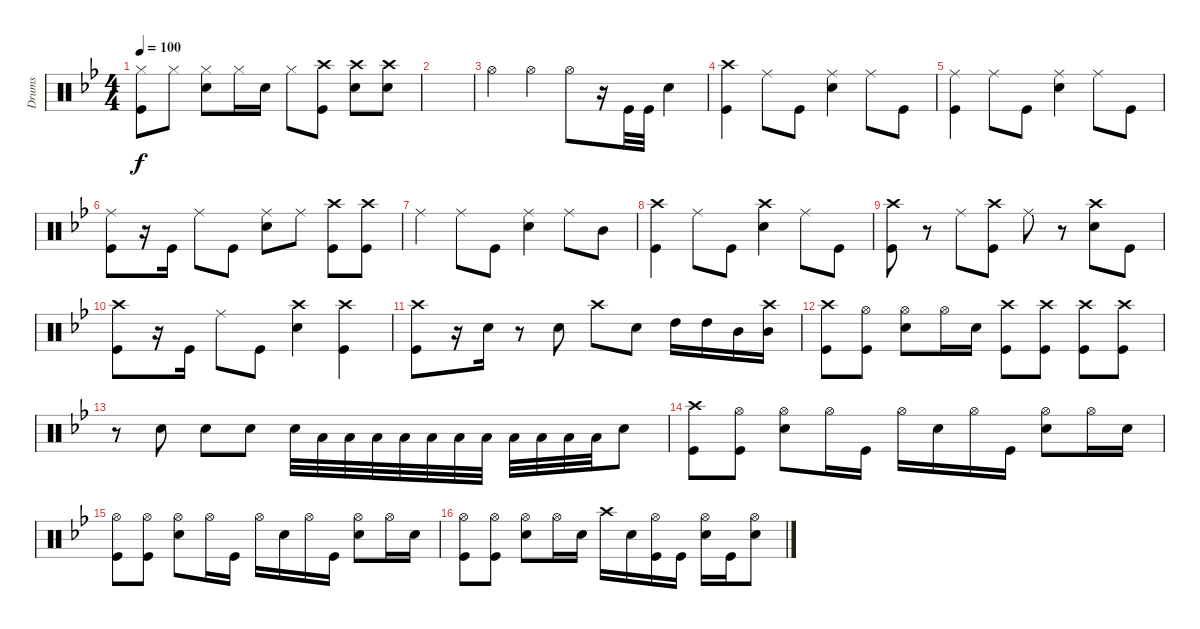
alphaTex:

\track ("Drums" "Drums") {instrument percussion}
\staff {score}
\articulation defaults
\ts (4 4)
\tempo 100
\clef neutral
\ks bb
("Hi-Hat (closed)" "Kick (hit)").8{dy f} "Hi-Hat (closed)".8 ("Hi-Hat (closed)" "Snare (hit) 2").8 "Hi-Hat (closed)".16 "Snare (hit) 2".16 "Hi-Hat (closed)".8 ("Crash high (hit)" "Kick (hit)").8 ("Crash high (hit)" "Snare (hit) 2").8 ("Crash high (hit)" "Snare (hit) 2").8 |
|
"Hi-Hat (open)".4 "Hi-Hat (open)".4 "Hi-Hat (open)".8 r.16 "Kick (hit)".32 "Kick (hit)".32 "Snare (hit) 2".4 |
("Crash high (hit)" "Kick (hit)").4 "Ride (middle)".8 "Kick (hit)".8 ("Ride (middle)" "Snare (hit) 2").4 "Ride (middle)".8 "Kick (hit)".8 |
("Ride (middle)" "Kick (hit)").4 "Ride (middle)".8 "Kick (hit)".8 ("Ride (middle)" "Snare (hit) 2").4 "Ride (middle)".8 "Kick (hit)".8 |
("Ride (middle)" "Kick (hit)").8 r.16 "Kick (hit)".16 "Ride (middle)".8 "Kick (hit)".8 ("Ride (middle)" "Snare (hit) 2").8 "Ride (middle)".8 ("Crash high (hit)" "Kick (hit)").8 ("Crash high (hit)" "Kick (hit)").8 |
"Ride (middle)".4 "Ride (middle)".8 "Kick (hit)".8 ("Ride (middle)" "Snare (hit) 2").4 "Ride (middle)".8 "Mid Tom (hit)".8 |
("Crash high (hit)" "Kick (hit)").4 "Ride (middle)".8 "Kick (hit)".8 ("Crash high (hit)" "Snare (hit) 2").4 "Ride (middle)".8 "Kick (hit)".8 |
("Crash high (hit)" "Kick (hit)").8 r.8 "Ride (middle)".8 ("Crash high (hit)" "Kick (hit)").8 "Ride (middle)".8 r.8 ("Crash high (hit)" "Snare (hit) 2").8 "Kick (hit)".8 |
("Crash high (hit)" "Kick (hit)").8 r.16 "Kick (hit)".16 "Ride (middle)".8 "Kick (hit)".8 ("Crash high (hit)" "Snare (hit) 2").4 ("Crash high (hit)" "Kick (hit)").4 |
("Crash high (hit)" "Kick (hit)").8 r.16 "Snare (hit) 2".16 r.8 "Snare (hit) 2".8 "Crash high (hit)".8 "Snare (hit) 2".8 "High Tom (hit)".16 "High Tom (hit)".16 "Mid Tom (hit)".16 ("Crash high (hit)" "Mid Tom (hit)").16 |
("Crash high (hit)" "Kick (hit)").8 ("Hi-Hat (open)" "Kick (hit)").8 ("Hi-Hat (open)" "Snare (hit) 2").8 "Hi-Hat (open)".16 "Snare (hit) 2".16 ("Crash high (hit)" "Kick (hit)").8 ("Crash high (hit)" "Kick (hit)").8 ("Crash high (hit)" "Kick (hit)").8 ("Crash high (hit)" "Kick (hit)").8 |
r.8 "Snare (hit) 2".8 "Snare (hit) 2".8 "Snare (hit) 2".8 "Snare (hit) 2".32 "Low Floor Tom (hit)".32 "Low Floor Tom (hit)".32 "Low Floor Tom (hit)".32 "Low Floor Tom (hit)".32 "Low Floor Tom (hit)".32 "Low Floor Tom (hit)".32 "Low Floor Tom (hit)".32 "Low Floor Tom (hit)".32 "Low Floor Tom (hit)".32 "Low Floor Tom (hit)".32 "Low Floor Tom (hit)".32 "Snare (hit) 2".8 |
\ks gminor
("Crash high (hit)" "Kick (hit)").8 ("Hi-Hat (open)" "Kick (hit)").8 ("Hi-Hat (open)" "Snare (hit) 2").8 "Hi-Hat (open)".16 "Kick (hit)".16 "Hi-Hat (open)".16 "Snare (hit) 2".16 "Hi-Hat (open)".16 "Kick (hit)".16 ("Hi-Hat (open)" "Snare (hit) 2").8 "Hi-Hat (open)".16 "Snare (hit) 2".16 |
("Hi-Hat (open)" "Kick (hit)").8 ("Hi-Hat (open)" "Kick (hit)").8 ("Hi-Hat (open)" "Snare (hit) 2").8 "Hi-Hat (open)".16 "Kick (hit)".16 "Hi-Hat (open)".16 "Snare (hit) 2".16 "Hi-Hat (open)".16 "Kick (hit)".16 ("Hi-Hat (open)" "Snare (hit) 2").8 "Hi-Hat (open)".16 "Snare (hit) 2".16 |
("Hi-Hat (open)" "Kick (hit)").8 ("Hi-Hat (open)" "Kick (hit)").8 ("Hi-Hat (open)" "Snare (hit) 2").8 "Hi-Hat (open)".16 "Snare (hit) 2".16 "Crash high (hit)".16 "Snare (hit) 2".16 ("Hi-Hat (open)" "Kick (hit)").16 "Kick (hit)".16 ("Hi-Hat (open)" "Snare (hit) 2").16 "Kick (hit)".16 ("Hi-Hat (open)" "Snare (hit) 2").8
